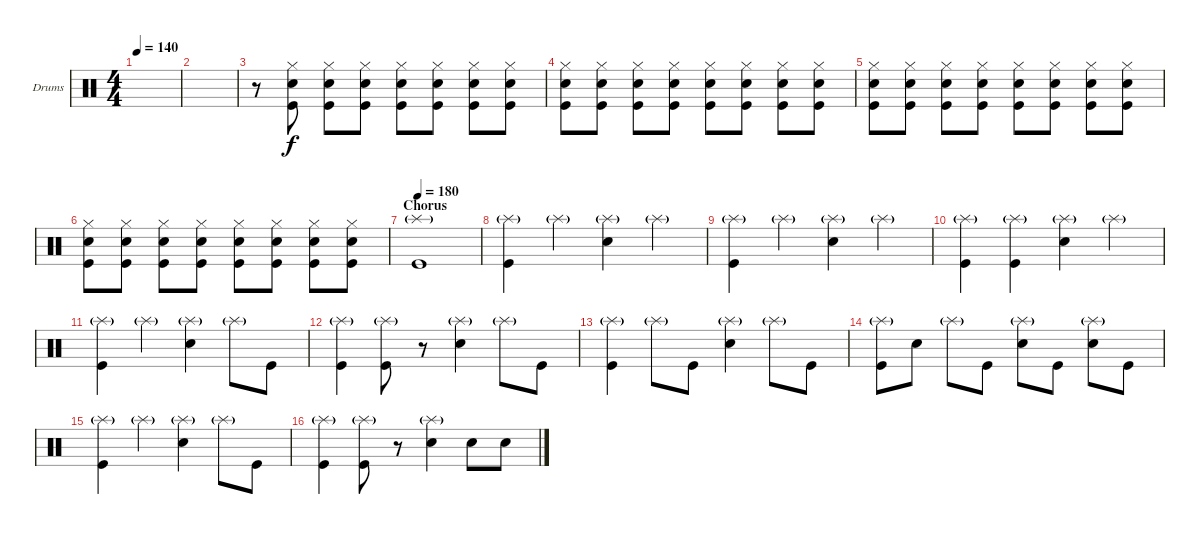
\bracketExtendMode groupsimilarinstruments
\firstSystemTrackNameOrientation horizontal
\otherSystemsTrackNameOrientation horizontal
\track ("Drumkit" "Drums") {instrument percussion}
\staff {score}
\articulation defaults
\ts (4 4)
\tempo 140
\clef neutral
\scale
0.333333
\ks c
|
\scale
0.333333 |
\scale
0.333333 r.8 ("Snare (hit) 2" "Kick (hit)" "Hi-Hat (closed)").8 ("Snare (hit) 2" "Kick (hit)" "Hi-Hat (closed)").8 ("Snare (hit) 2" "Kick (hit)" "Hi-Hat (closed)").8 ("Snare (hit) 2" "Kick (hit)" "Hi-Hat (closed)").8 ("Snare (hit) 2" "Kick (hit)" "Hi-Hat (closed)").8 ("Snare (hit) 2" "Kick (hit)" "Hi-Hat (closed)").8 ("Snare (hit) 2" "Kick (hit)" "Hi-Hat (closed)").8 |
\scale
0.333333 ("Snare (hit) 2" "Kick (hit)" "Hi-Hat (closed)").8 ("Snare (hit) 2" "Kick (hit)" "Hi-Hat (closed)").8 ("Snare (hit) 2" "Kick (hit)" "Hi-Hat (closed)").8 ("Snare (hit) 2" "Kick (hit)" "Hi-Hat (closed)").8 ("Snare (hit) 2" "Kick (hit)" "Hi-Hat (closed)").8 ("Snare (hit) 2" "Kick (hit)" "Hi-Hat (closed)").8 ("Snare (hit) 2" "Kick (hit)" "Hi-Hat (closed)").8 ("Snare (hit) 2" "Kick (hit)" "Hi-Hat (closed)").8 |
\scale
0.333333 ("Snare (hit) 2" "Kick (hit)" "Hi-Hat (closed)").8 ("Snare (hit) 2" "Kick (hit)" "Hi-Hat (closed)").8 ("Snare (hit) 2" "Kick (hit)" "Hi-Hat (closed)").8 ("Snare (hit) 2" "Kick (hit)" "Hi-Hat (closed)").8 ("Snare (hit) 2" "Kick (hit)" "Hi-Hat (closed)").8 ("Snare (hit) 2" "Kick (hit)" "Hi-Hat (closed)").8 ("Snare (hit) 2" "Kick (hit)" "Hi-Hat (closed)").8 ("Snare (hit) 2" "Kick (hit)" "Hi-Hat (closed)").8 |
("Snare (hit) 2" "Kick (hit)" "Hi-Hat (closed)").8 ("Snare (hit) 2" "Kick (hit)" "Hi-Hat (closed)").8 ("Snare (hit) 2" "Kick (hit)" "Hi-Hat (closed)").8 ("Snare (hit) 2" "Kick (hit)" "Hi-Hat (closed)").8 ("Snare (hit) 2" "Kick (hit)" "Hi-Hat (closed)").8 ("Snare (hit) 2" "Kick (hit)" "Hi-Hat (closed)").8 ("Snare (hit) 2" "Kick (hit)" "Hi-Hat (closed)").8 ("Snare (hit) 2" "Kick (hit)" "Hi-Hat (closed)").8 |
\section ("" "Chorus")
\tempo 180
\scale
0.333333 ("Kick (hit)" "Splash (hit)"{g}).1 |
\scale
0.333333 ("Kick (hit)" "Splash (hit)"{g}).4 "Splash (hit)"{g}.4 ("Snare (hit) 2" "Splash (hit)"{g}).4 "Splash (hit)"{g}.4 |
\scale
0.333333 ("Kick (hit)" "Splash (hit)"{g}).4 "Splash (hit)"{g}.4 ("Snare (hit) 2" "Splash (hit)"{g}).4 "Splash (hit)"{g}.4 |
\scale
0.333333 ("Kick (hit)" "Splash (hit)"{g}).4 ("Kick (hit)" "Splash (hit)"{g}).4 ("Snare (hit) 2" "Splash (hit)"{g}).4 "Splash (hit)"{g}.4 |
\scale
0.333333 ("Kick (hit)" "Splash (hit)"{g}).4 "Splash (hit)"{g}.4 ("Snare (hit) 2" "Splash (hit)"{g}).4 "Splash (hit)"{g}.8 "Kick (hit)".8 |
\scale
0.333333 ("Kick (hit)" "Splash (hit)"{g}).4 ("Kick (hit)" "Splash (hit)"{g}).8 r.8 ("Snare (hit) 2" "Splash (hit)"{g}).4 "Splash (hit)"{g}.8 "Kick (hit)".8 |
\scale
0.333333 ("Kick (hit)" "Splash (hit)"{g}).4 "Splash (hit)"{g}.8 "Kick (hit)".8 ("Snare (hit) 2" "Splash (hit)"{g}).4 "Splash (hit)"{g}.8 "Kick (hit)".8 |
\scale
0.333333 ("Kick (hit)" "Splash (hit)"{g}).8 "Snare (hit) 2".8 "Splash (hit)"{g}.8 "Kick (hit)".8 ("Snare (hit) 2" "Splash (hit)"{g}).8 "Kick (hit)".8 ("Snare (hit) 2" "Splash (hit)"{g}).8 "Kick (hit)".8 |
\scale
0.333333 ("Kick (hit)" "Splash (hit)"{g}).4 "Splash (hit)"{g}.4 ("Snare (hit) 2" "Splash (hit)"{g}).4 "Splash (hit)"{g}.8 "Kick (hit)".8 |
\scale
0.333333 ("Kick (hit)" "Splash (hit)"{g}).4 ("Kick (hit)" "Splash (hit)"{g}).8 r.8 ("Snare (hit) 2" "Splash (hit)"{g}).4 "Snare (hit) 2".8 "Snare (hit) 2".8
